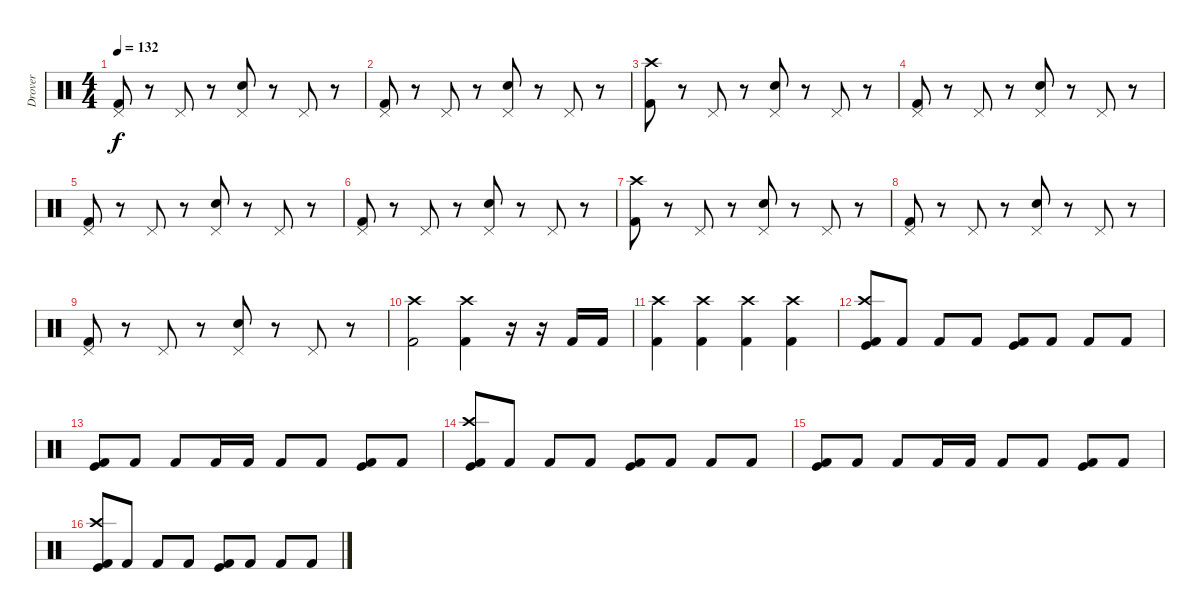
\track ("Drover" "Drover") {instrument percussion}
\staff {score}
\articulation defaults
\ts (4 4)
\tempo 132
\clef neutral
\ks c
("Pedal Hi-Hat (hit)" "Kick (hit) 2").8{dy f} r.8 "Pedal Hi-Hat (hit)".8 r.8 ("Snare (hit) 2" "Pedal Hi-Hat (hit)").8 r.8 "Pedal Hi-Hat (hit)".8 r.8 |
("Pedal Hi-Hat (hit)" "Kick (hit) 2").8 r.8 "Pedal Hi-Hat (hit)".8 r.8 ("Snare (hit) 2" "Pedal Hi-Hat (hit)").8 r.8 "Pedal Hi-Hat (hit)".8 r.8 |
("Crash high (hit)" "Kick (hit) 2").8 r.8 "Pedal Hi-Hat (hit)".8 r.8 ("Snare (hit) 2" "Pedal Hi-Hat (hit)").8 r.8 "Pedal Hi-Hat (hit)".8 r.8 |
("Pedal Hi-Hat (hit)" "Kick (hit) 2").8 r.8 "Pedal Hi-Hat (hit)".8 r.8 ("Snare (hit) 2" "Pedal Hi-Hat (hit)").8 r.8 "Pedal Hi-Hat (hit)".8 r.8 |
("Pedal Hi-Hat (hit)" "Kick (hit) 2").8 r.8 "Pedal Hi-Hat (hit)".8 r.8 ("Snare (hit) 2" "Pedal Hi-Hat (hit)").8 r.8 "Pedal Hi-Hat (hit)".8 r.8 |
("Pedal Hi-Hat (hit)" "Kick (hit) 2").8 r.8 "Pedal Hi-Hat (hit)".8 r.8 ("Snare (hit) 2" "Pedal Hi-Hat (hit)").8 r.8 "Pedal Hi-Hat (hit)".8 r.8 |
("Crash high (hit)" "Kick (hit) 2").8 r.8 "Pedal Hi-Hat (hit)".8 r.8 ("Snare (hit) 2" "Pedal Hi-Hat (hit)").8 r.8 "Pedal Hi-Hat (hit)".8 r.8 |
("Pedal Hi-Hat (hit)" "Kick (hit) 2").8 r.8 "Pedal Hi-Hat (hit)".8 r.8 ("Snare (hit) 2" "Pedal Hi-Hat (hit)").8 r.8 "Pedal Hi-Hat (hit)".8 r.8 |
("Pedal Hi-Hat (hit)" "Kick (hit) 2").8 r.8 "Pedal Hi-Hat (hit)".8 r.8 ("Snare (hit) 2" "Pedal Hi-Hat (hit)").8 r.8 "Pedal Hi-Hat (hit)".8 r.8 |
("Kick (hit) 2" "Crash high (hit)").2 ("Kick (hit) 2" "Crash high (hit)").4 r.16 r.16 "Kick (hit) 2".16 "Kick (hit) 2".16 |
("Kick (hit) 2" "Crash high (hit)").4 ("Kick (hit) 2" "Crash high (hit)").4 ("Kick (hit) 2" "Crash high (hit)").4 ("Kick (hit) 2" "Crash high (hit)").4 |
("Crash high (hit)" "Kick (hit) 2" "Kick (hit)").8 "Kick (hit) 2".8 "Kick (hit) 2".8 "Kick (hit) 2".8 ("Kick (hit) 2" "Kick (hit)").8 "Kick (hit) 2".8 "Kick (hit) 2".8 "Kick (hit) 2".8 |
("Kick (hit) 2" "Kick (hit)").8 "Kick (hit) 2".8 "Kick (hit) 2".8 "Kick (hit) 2".16 "Kick (hit) 2".16 "Kick (hit) 2".8 "Kick (hit) 2".8 ("Kick (hit)" "Kick (hit) 2").8 "Kick (hit) 2".8 |
("Crash high (hit)" "Kick (hit) 2" "Kick (hit)").8 "Kick (hit) 2".8 "Kick (hit) 2".8 "Kick (hit) 2".8 ("Kick (hit) 2" "Kick (hit)").8 "Kick (hit) 2".8 "Kick (hit) 2".8 "Kick (hit) 2".8 |
("Kick (hit) 2" "Kick (hit)").8 "Kick (hit) 2".8 "Kick (hit) 2".8 "Kick (hit) 2".16 "Kick (hit) 2".16 "Kick (hit) 2".8 "Kick (hit) 2".8 ("Kick (hit)" "Kick (hit) 2").8 "Kick (hit) 2".8 |
("Crash high (hit)" "Kick (hit) 2" "Kick (hit)").8 "Kick (hit) 2".8 "Kick (hit) 2".8 "Kick (hit) 2".8 ("Kick (hit) 2" "Kick (hit)").8 "Kick (hit) 2".8 "Kick (hit) 2".8 "Kick (hit) 2".8
